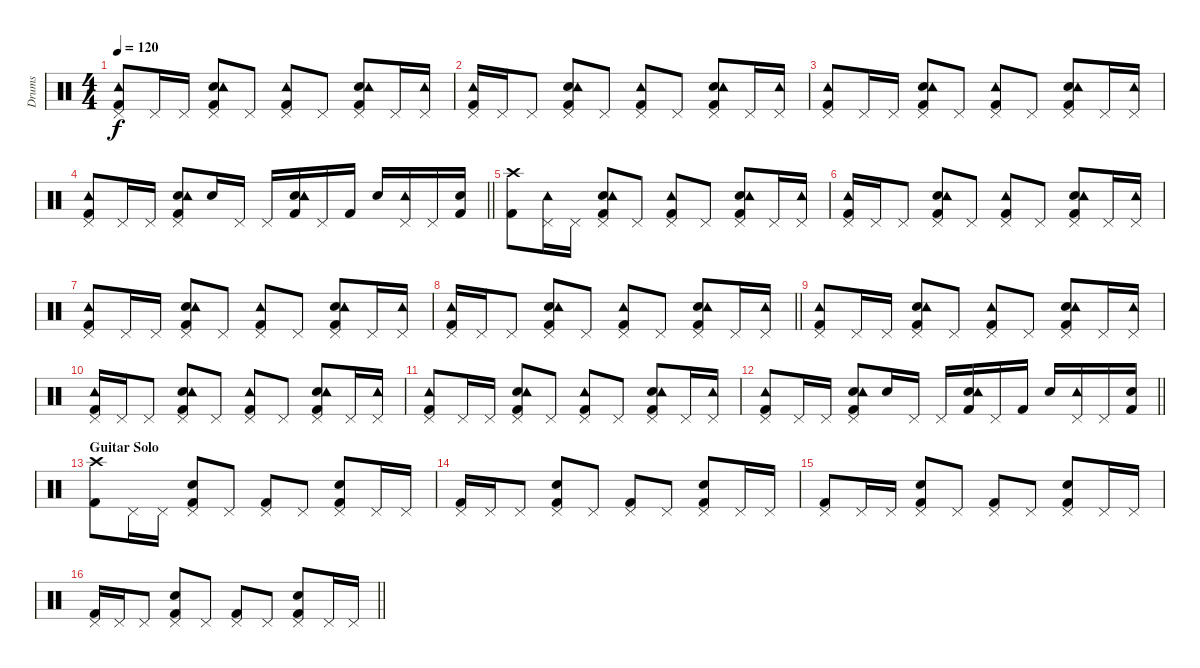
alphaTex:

\track ("Drums" "Drums") {instrument percussion}
\staff {score}
\articulation defaults
\ts (4 4)
\tempo 120
\clef neutral
\ks c
("Kick (hit) 2" "Tambourine (hit)" "Pedal Hi-Hat (hit)").8{dy f} "Pedal Hi-Hat (hit)".16 "Pedal Hi-Hat (hit)".16 ("Kick (hit) 2" "Snare (hit) 2" "Tambourine (hit)" "Pedal Hi-Hat (hit)").8 "Pedal Hi-Hat (hit)".8 ("Kick (hit) 2" "Tambourine (hit)" "Pedal Hi-Hat (hit)").8 "Pedal Hi-Hat (hit)".8 ("Kick (hit) 2" "Snare (hit) 2" "Tambourine (hit)" "Pedal Hi-Hat (hit)").8 "Pedal Hi-Hat (hit)".16 ("Tambourine (hit)" "Pedal Hi-Hat (hit)").16 |
("Kick (hit) 2" "Tambourine (hit)" "Pedal Hi-Hat (hit)").16 "Pedal Hi-Hat (hit)".16 "Pedal Hi-Hat (hit)".8 ("Kick (hit) 2" "Snare (hit) 2" "Tambourine (hit)" "Pedal Hi-Hat (hit)").8 "Pedal Hi-Hat (hit)".8 ("Kick (hit) 2" "Tambourine (hit)" "Pedal Hi-Hat (hit)").8 "Pedal Hi-Hat (hit)".8 ("Kick (hit) 2" "Snare (hit) 2" "Tambourine (hit)" "Pedal Hi-Hat (hit)").8 "Pedal Hi-Hat (hit)".16 ("Tambourine (hit)" "Pedal Hi-Hat (hit)").16 |
("Kick (hit) 2" "Tambourine (hit)" "Pedal Hi-Hat (hit)").8 "Pedal Hi-Hat (hit)".16 "Pedal Hi-Hat (hit)".16 ("Kick (hit) 2" "Snare (hit) 2" "Tambourine (hit)" "Pedal Hi-Hat (hit)").8 "Pedal Hi-Hat (hit)".8 ("Kick (hit) 2" "Tambourine (hit)" "Pedal Hi-Hat (hit)").8 "Pedal Hi-Hat (hit)".8 ("Kick (hit) 2" "Snare (hit) 2" "Tambourine (hit)" "Pedal Hi-Hat (hit)").8 "Pedal Hi-Hat (hit)".16 ("Tambourine (hit)" "Pedal Hi-Hat (hit)").16 |
\barLineRight lightlight
("Kick (hit) 2" "Tambourine (hit)" "Pedal Hi-Hat (hit)").8 "Pedal Hi-Hat (hit)".16 "Pedal Hi-Hat (hit)".16 ("Kick (hit) 2" "Snare (hit) 2" "Tambourine (hit)" "Pedal Hi-Hat (hit)").8 "Snare (hit) 2".16 "Pedal Hi-Hat (hit)".16 "Pedal Hi-Hat (hit)".16 ("Kick (hit) 2" "Snare (hit) 2" "Tambourine (hit)").16 "Pedal Hi-Hat (hit)".16 "Kick (hit) 2".16 "Snare (hit) 2".16 ("Tambourine (hit)" "Pedal Hi-Hat (hit)").16 "Pedal Hi-Hat (hit)".16 ("Kick (hit) 2" "Snare (hit) 2").16 |
("Kick (hit) 2" "Crash high (hit)").8 ("Tambourine (hit)" "Pedal Hi-Hat (hit)").16 "Pedal Hi-Hat (hit)".16 ("Kick (hit) 2" "Snare (hit) 2" "Tambourine (hit)" "Pedal Hi-Hat (hit)").8 "Pedal Hi-Hat (hit)".8 ("Kick (hit) 2" "Tambourine (hit)" "Pedal Hi-Hat (hit)").8 "Pedal Hi-Hat (hit)".8 ("Kick (hit) 2" "Snare (hit) 2" "Tambourine (hit)" "Pedal Hi-Hat (hit)").8 "Pedal Hi-Hat (hit)".16 ("Tambourine (hit)" "Pedal Hi-Hat (hit)").16 |
("Kick (hit) 2" "Tambourine (hit)" "Pedal Hi-Hat (hit)").16 "Pedal Hi-Hat (hit)".16 "Pedal Hi-Hat (hit)".8 ("Kick (hit) 2" "Snare (hit) 2" "Tambourine (hit)" "Pedal Hi-Hat (hit)").8 "Pedal Hi-Hat (hit)".8 ("Kick (hit) 2" "Tambourine (hit)" "Pedal Hi-Hat (hit)").8 "Pedal Hi-Hat (hit)".8 ("Kick (hit) 2" "Snare (hit) 2" "Tambourine (hit)" "Pedal Hi-Hat (hit)").8 "Pedal Hi-Hat (hit)".16 ("Tambourine (hit)" "Pedal Hi-Hat (hit)").16 |
("Kick (hit) 2" "Tambourine (hit)" "Pedal Hi-Hat (hit)").8 "Pedal Hi-Hat (hit)".16 "Pedal Hi-Hat (hit)".16 ("Kick (hit) 2" "Snare (hit) 2" "Tambourine (hit)" "Pedal Hi-Hat (hit)").8 "Pedal Hi-Hat (hit)".8 ("Kick (hit) 2" "Tambourine (hit)" "Pedal Hi-Hat (hit)").8 "Pedal Hi-Hat (hit)".8 ("Kick (hit) 2" "Snare (hit) 2" "Tambourine (hit)" "Pedal Hi-Hat (hit)").8 "Pedal Hi-Hat (hit)".16 ("Tambourine (hit)" "Pedal Hi-Hat (hit)").16 |
\barLineRight lightlight
("Kick (hit) 2" "Tambourine (hit)" "Pedal Hi-Hat (hit)").16 "Pedal Hi-Hat (hit)".16 "Pedal Hi-Hat (hit)".8 ("Kick (hit) 2" "Snare (hit) 2" "Tambourine (hit)" "Pedal Hi-Hat (hit)").8 "Pedal Hi-Hat (hit)".8 ("Kick (hit) 2" "Tambourine (hit)" "Pedal Hi-Hat (hit)").8 "Pedal Hi-Hat (hit)".8 ("Kick (hit) 2" "Snare (hit) 2" "Tambourine (hit)" "Pedal Hi-Hat (hit)").8 "Pedal Hi-Hat (hit)".16 ("Tambourine (hit)" "Pedal Hi-Hat (hit)").16 |
("Kick (hit) 2" "Tambourine (hit)" "Pedal Hi-Hat (hit)").8 "Pedal Hi-Hat (hit)".16 "Pedal Hi-Hat (hit)".16 ("Kick (hit) 2" "Snare (hit) 2" "Tambourine (hit)" "Pedal Hi-Hat (hit)").8 "Pedal Hi-Hat (hit)".8 ("Kick (hit) 2" "Tambourine (hit)" "Pedal Hi-Hat (hit)").8 "Pedal Hi-Hat (hit)".8 ("Kick (hit) 2" "Snare (hit) 2" "Tambourine (hit)" "Pedal Hi-Hat (hit)").8 "Pedal Hi-Hat (hit)".16 ("Tambourine (hit)" "Pedal Hi-Hat (hit)").16 |
("Kick (hit) 2" "Tambourine (hit)" "Pedal Hi-Hat (hit)").16 "Pedal Hi-Hat (hit)".16 "Pedal Hi-Hat (hit)".8 ("Kick (hit) 2" "Snare (hit) 2" "Tambourine (hit)" "Pedal Hi-Hat (hit)").8 "Pedal Hi-Hat (hit)".8 ("Kick (hit) 2" "Tambourine (hit)" "Pedal Hi-Hat (hit)").8 "Pedal Hi-Hat (hit)".8 ("Kick (hit) 2" "Snare (hit) 2" "Tambourine (hit)" "Pedal Hi-Hat (hit)").8 "Pedal Hi-Hat (hit)".16 ("Tambourine (hit)" "Pedal Hi-Hat (hit)").16 |
("Kick (hit) 2" "Tambourine (hit)" "Pedal Hi-Hat (hit)").8 "Pedal Hi-Hat (hit)".16 "Pedal Hi-Hat (hit)".16 ("Kick (hit) 2" "Snare (hit) 2" "Tambourine (hit)" "Pedal Hi-Hat (hit)").8 "Pedal Hi-Hat (hit)".8 ("Kick (hit) 2" "Tambourine (hit)" "Pedal Hi-Hat (hit)").8 "Pedal Hi-Hat (hit)".8 ("Kick (hit) 2" "Snare (hit) 2" "Tambourine (hit)" "Pedal Hi-Hat (hit)").8 "Pedal Hi-Hat (hit)".16 ("Tambourine (hit)" "Pedal Hi-Hat (hit)").16 |
\barLineRight lightlight
("Kick (hit) 2" "Tambourine (hit)" "Pedal Hi-Hat (hit)").8 "Pedal Hi-Hat (hit)".16 "Pedal Hi-Hat (hit)".16 ("Kick (hit) 2" "Snare (hit) 2" "Tambourine (hit)" "Pedal Hi-Hat (hit)").8 "Snare (hit) 2".16 "Pedal Hi-Hat (hit)".16 "Pedal Hi-Hat (hit)".16 ("Kick (hit) 2" "Snare (hit) 2" "Tambourine (hit)").16 "Pedal Hi-Hat (hit)".16 "Kick (hit) 2".16 "Snare (hit) 2".16 ("Tambourine (hit)" "Pedal Hi-Hat (hit)").16 "Pedal Hi-Hat (hit)".16 ("Kick (hit) 2" "Snare (hit) 2").16 |
\section ("" "Guitar Solo")
("Kick (hit) 2" "Crash high (hit)").8 "Pedal Hi-Hat (hit)".16 "Pedal Hi-Hat (hit)".16 ("Kick (hit) 2" "Snare (hit) 2" "Pedal Hi-Hat (hit)").8 "Pedal Hi-Hat (hit)".8 ("Kick (hit) 2" "Pedal Hi-Hat (hit)").8 "Pedal Hi-Hat (hit)".8 ("Kick (hit) 2" "Snare (hit) 2" "Pedal Hi-Hat (hit)").8 "Pedal Hi-Hat (hit)".16 "Pedal Hi-Hat (hit)".16 |
("Kick (hit) 2" "Pedal Hi-Hat (hit)").16 "Pedal Hi-Hat (hit)".16 "Pedal Hi-Hat (hit)".8 ("Kick (hit) 2" "Snare (hit) 2" "Pedal Hi-Hat (hit)").8 "Pedal Hi-Hat (hit)".8 ("Kick (hit) 2" "Pedal Hi-Hat (hit)").8 "Pedal Hi-Hat (hit)".8 ("Kick (hit) 2" "Snare (hit) 2" "Pedal Hi-Hat (hit)").8 "Pedal Hi-Hat (hit)".16 "Pedal Hi-Hat (hit)".16 |
("Kick (hit) 2" "Pedal Hi-Hat (hit)").8 "Pedal Hi-Hat (hit)".16 "Pedal Hi-Hat (hit)".16 ("Kick (hit) 2" "Snare (hit) 2" "Pedal Hi-Hat (hit)").8 "Pedal Hi-Hat (hit)".8 ("Kick (hit) 2" "Pedal Hi-Hat (hit)").8 "Pedal Hi-Hat (hit)".8 ("Kick (hit) 2" "Snare (hit) 2" "Pedal Hi-Hat (hit)").8 "Pedal Hi-Hat (hit)".16 "Pedal Hi-Hat (hit)".16 |
\barLineRight lightlight
("Kick (hit) 2" "Pedal Hi-Hat (hit)").16 "Pedal Hi-Hat (hit)".16 "Pedal Hi-Hat (hit)".8 ("Kick (hit) 2" "Snare (hit) 2" "Pedal Hi-Hat (hit)").8 "Pedal Hi-Hat (hit)".8 ("Kick (hit) 2" "Pedal Hi-Hat (hit)").8 "Pedal Hi-Hat (hit)".8 ("Kick (hit) 2" "Snare (hit) 2" "Pedal Hi-Hat (hit)").8 "Pedal Hi-Hat (hit)".16 "Pedal Hi-Hat (hit)".16
